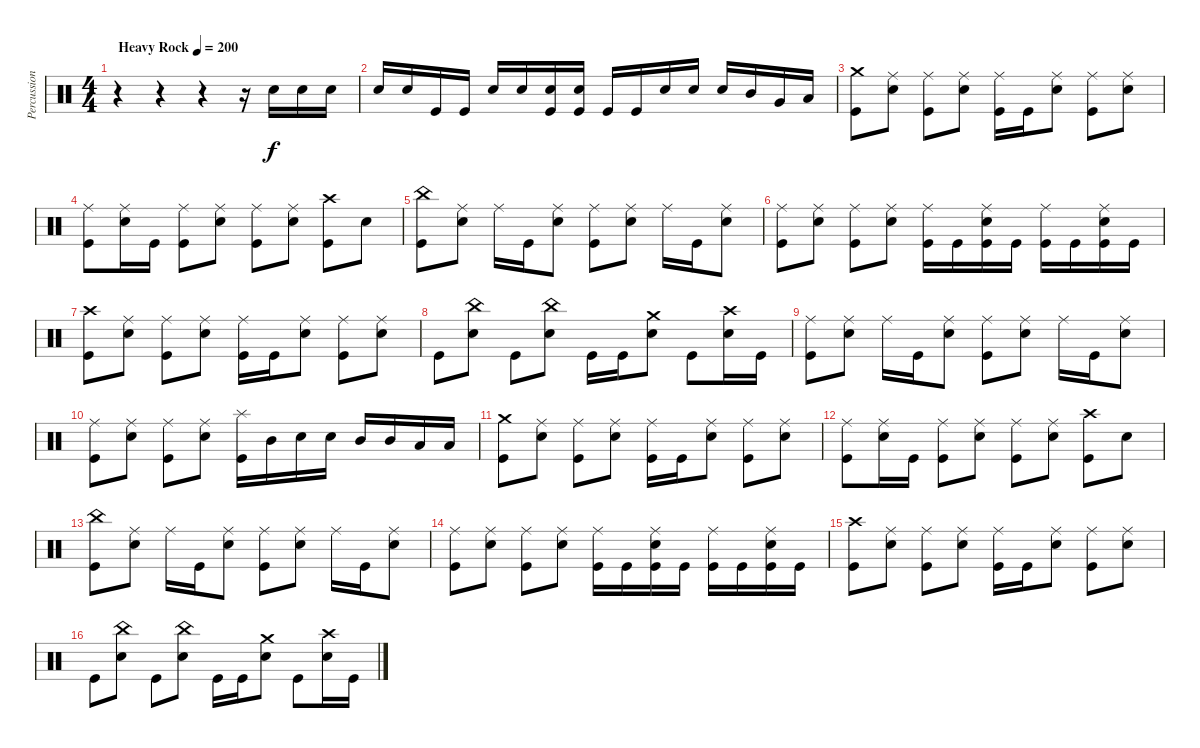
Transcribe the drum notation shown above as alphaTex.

\track ("Percussion" "Percussion") {instrument percussion}
\staff {score}
\articulation defaults
\ts (4 4)
\tempo (200 "Heavy Rock")
\clef neutral
\ks c
r.4{dy f} r.4 r.4 r.16 "Snare (hit) 2".16 "Snare (hit) 2".16 "Snare (hit) 2".16 |
"Snare (hit) 2".16 "Snare (hit) 2".16 "Kick (hit)".16 "Kick (hit)".16 "Snare (hit) 2".16 "Snare (hit) 2".16 ("Snare (hit) 2" "Kick (hit)").16 ("Snare (hit) 2" "Kick (hit)").16 "Kick (hit)".16 "Kick (hit)".16 "Snare (hit) 2".16 "Snare (hit) 2".16 "Snare (hit) 2".16 "Mid Tom (hit)".16 "Very Low Tom (hit)".16 "Low Floor Tom (hit)".16 |
("Crash medium (hit)" "Kick (hit)").8 ("Ride (middle)" "Snare (hit) 2").8 ("Ride (middle)" "Kick (hit)").8 ("Ride (middle)" "Snare (hit) 2").8 ("Ride (middle)" "Kick (hit)").16 "Kick (hit)".16 ("Ride (middle)" "Snare (hit) 2").8 ("Ride (middle)" "Kick (hit)").8 ("Ride (middle)" "Snare (hit) 2").8 |
("Ride (middle)" "Kick (hit)").8 ("Ride (middle)" "Snare (hit) 2").16 "Kick (hit)".16 ("Ride (middle)" "Kick (hit)").8 ("Ride (middle)" "Snare (hit) 2").8 ("Ride (middle)" "Kick (hit)").8 ("Ride (middle)" "Snare (hit) 2").8 ("Crash high (hit)" "Kick (hit)").8 "Snare (hit) 2".8 |
("China (hit)" "Kick (hit)").8 ("Ride (middle)" "Snare (hit) 2").8 "Ride (middle)".16 "Kick (hit)".16 ("Ride (middle)" "Snare (hit) 2").8 ("Ride (middle)" "Kick (hit)").8 ("Ride (middle)" "Snare (hit) 2").8 "Ride (middle)".16 "Kick (hit)".16 ("Ride (middle)" "Snare (hit) 2").8 |
("Ride (middle)" "Kick (hit)").8 ("Ride (middle)" "Snare (hit) 2").8 ("Ride (middle)" "Kick (hit)").8 ("Ride (middle)" "Snare (hit) 2").8 ("Ride (middle)" "Kick (hit)").16 "Kick (hit)".16 ("Ride (middle)" "Snare (hit) 2" "Kick (hit)").16 "Kick (hit)".16 ("Ride (middle)" "Kick (hit)").16 "Kick (hit)".16 ("Ride (middle)" "Snare (hit) 2" "Kick (hit)").16 "Kick (hit)".16 |
("Crash high (hit)" "Kick (hit)").8 ("Ride (middle)" "Snare (hit) 2").8 ("Ride (middle)" "Kick (hit)").8 ("Ride (middle)" "Snare (hit) 2").8 ("Ride (middle)" "Kick (hit)").16 "Kick (hit)".16 ("Ride (middle)" "Snare (hit) 2").8 ("Ride (middle)" "Kick (hit)").8 ("Ride (middle)" "Snare (hit) 2").8 |
"Kick (hit)".8 ("China (hit)" "Snare (hit) 2").8 "Kick (hit)".8 ("China (hit)" "Snare (hit) 2").8 "Kick (hit)".16 "Kick (hit)".16 ("Crash medium (hit)" "Snare (hit) 2").8 "Kick (hit)".8 ("Crash high (hit)" "Snare (hit) 2").16 "Kick (hit)".16 |
("Ride (middle)" "Kick (hit)").8 ("Ride (middle)" "Snare (hit) 2").8 "Ride (middle)".16 "Kick (hit)".16 ("Ride (middle)" "Snare (hit) 2").8 ("Ride (middle)" "Kick (hit)").8 ("Ride (middle)" "Snare (hit) 2").8 "Ride (middle)".16 "Kick (hit)".16 ("Ride (middle)" "Snare (hit) 2").8 |
("Ride (middle)" "Kick (hit)").8 ("Ride (middle)" "Snare (hit) 2").8 ("Ride (middle)" "Kick (hit)").8 ("Ride (middle)" "Snare (hit) 2").8 ("Splash (hit)" "Kick (hit)").16 "Mid Tom (hit)".16 "Snare (hit) 2".16 "Snare (hit) 2".16 "Mid Tom (hit)".16 "Mid Tom (hit)".16 "Low Tom (hit)".16 "Low Tom (hit)".16 |
("Crash medium (hit)" "Kick (hit)").8 ("Ride (middle)" "Snare (hit) 2").8 ("Ride (middle)" "Kick (hit)").8 ("Ride (middle)" "Snare (hit) 2").8 ("Ride (middle)" "Kick (hit)").16 "Kick (hit)".16 ("Ride (middle)" "Snare (hit) 2").8 ("Ride (middle)" "Kick (hit)").8 ("Ride (middle)" "Snare (hit) 2").8 |
("Ride (middle)" "Kick (hit)").8 ("Ride (middle)" "Snare (hit) 2").16 "Kick (hit)".16 ("Ride (middle)" "Kick (hit)").8 ("Ride (middle)" "Snare (hit) 2").8 ("Ride (middle)" "Kick (hit)").8 ("Ride (middle)" "Snare (hit) 2").8 ("Crash high (hit)" "Kick (hit)").8 "Snare (hit) 2".8 |
("China (hit)" "Kick (hit)").8 ("Ride (middle)" "Snare (hit) 2").8 "Ride (middle)".16 "Kick (hit)".16 ("Ride (middle)" "Snare (hit) 2").8 ("Ride (middle)" "Kick (hit)").8 ("Ride (middle)" "Snare (hit) 2").8 "Ride (middle)".16 "Kick (hit)".16 ("Ride (middle)" "Snare (hit) 2").8 |
("Ride (middle)" "Kick (hit)").8 ("Ride (middle)" "Snare (hit) 2").8 ("Ride (middle)" "Kick (hit)").8 ("Ride (middle)" "Snare (hit) 2").8 ("Ride (middle)" "Kick (hit)").16 "Kick (hit)".16 ("Ride (middle)" "Snare (hit) 2" "Kick (hit)").16 "Kick (hit)".16 ("Ride (middle)" "Kick (hit)").16 "Kick (hit)".16 ("Ride (middle)" "Snare (hit) 2" "Kick (hit)").16 "Kick (hit)".16 |
("Crash high (hit)" "Kick (hit)").8 ("Ride (middle)" "Snare (hit) 2").8 ("Ride (middle)" "Kick (hit)").8 ("Ride (middle)" "Snare (hit) 2").8 ("Ride (middle)" "Kick (hit)").16 "Kick (hit)".16 ("Ride (middle)" "Snare (hit) 2").8 ("Ride (middle)" "Kick (hit)").8 ("Ride (middle)" "Snare (hit) 2").8 |
"Kick (hit)".8 ("China (hit)" "Snare (hit) 2").8 "Kick (hit)".8 ("China (hit)" "Snare (hit) 2").8 "Kick (hit)".16 "Kick (hit)".16 ("Crash medium (hit)" "Snare (hit) 2").8 "Kick (hit)".8 ("Crash high (hit)" "Snare (hit) 2").16 "Kick (hit)".16
